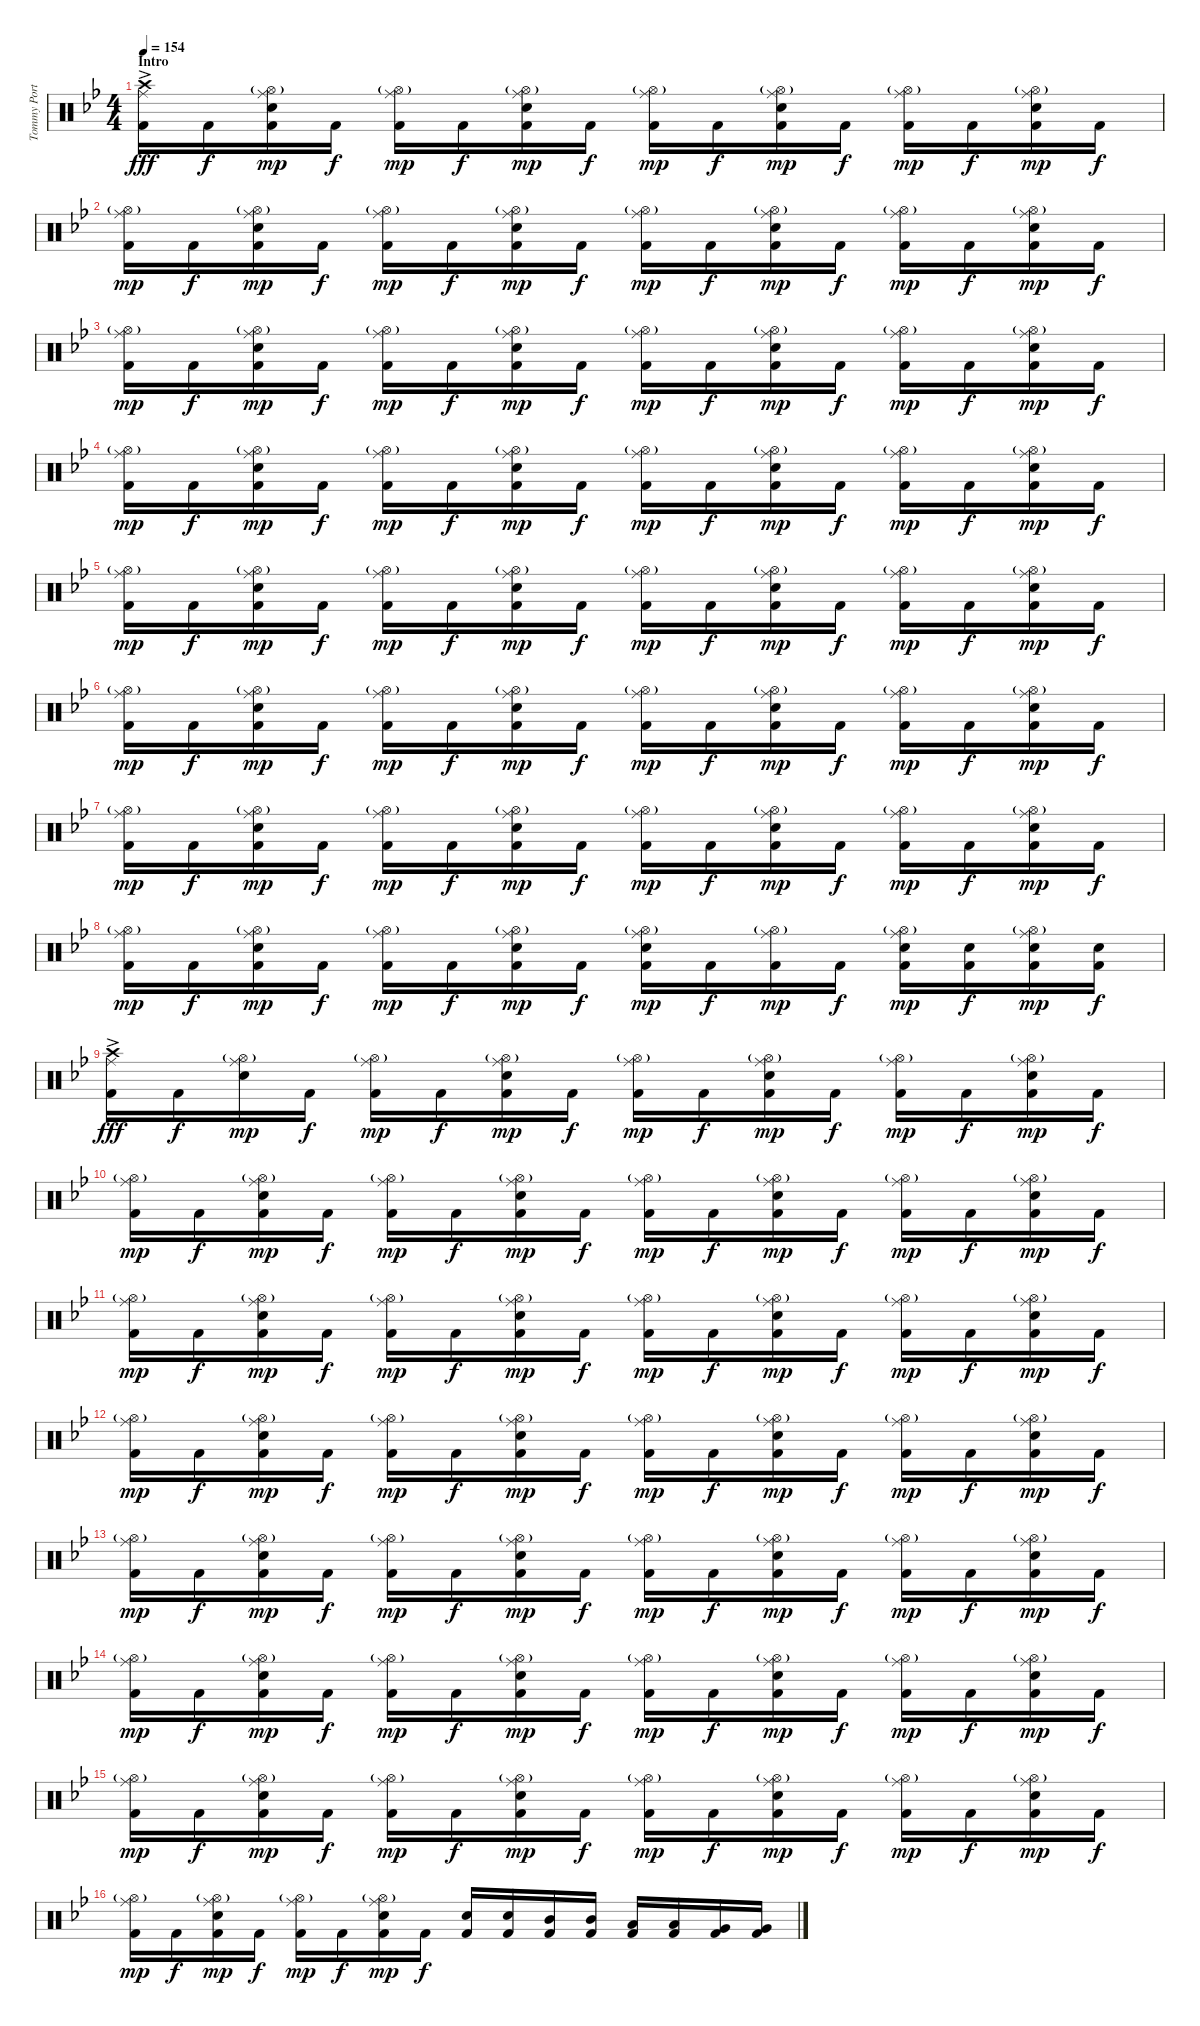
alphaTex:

\track ("Tommy Portimo" "Tommy Port") {instrument percussion}
\staff {score}
\articulation defaults
\ts (4 4)
\section ("" "Intro")
\tempo 154
\clef neutral
\ks gminor
("Crash high (hit)"{ac} "Ride (middle)" "Kick (hit) 2").16{dy fff} "Kick (hit) 2".16{dy f} ("Hi-Hat (open)"{g} "Ride (middle)" "Electric Snare (hit)" "Kick (hit) 2").16{dy mp} "Kick (hit) 2".16{dy f} ("Hi-Hat (open)"{g} "Ride (middle)" "Kick (hit) 2").16{dy mp} "Kick (hit) 2".16{dy f} ("Hi-Hat (open)"{g} "Ride (middle)" "Electric Snare (hit)" "Kick (hit) 2").16{dy mp} "Kick (hit) 2".16{dy f} ("Hi-Hat (open)"{g} "Ride (middle)" "Kick (hit) 2").16{dy mp} "Kick (hit) 2".16{dy f} ("Hi-Hat (open)"{g} "Ride (middle)" "Electric Snare (hit)" "Kick (hit) 2").16{dy mp} "Kick (hit) 2".16{dy f} ("Hi-Hat (open)"{g} "Ride (middle)" "Kick (hit) 2").16{dy mp} "Kick (hit) 2".16{dy f} ("Hi-Hat (open)"{g} "Ride (middle)" "Electric Snare (hit)" "Kick (hit) 2").16{dy mp} "Kick (hit) 2".16{dy f} |
("Hi-Hat (open)"{g} "Ride (middle)" "Kick (hit) 2").16{dy mp} "Kick (hit) 2".16{dy f} ("Hi-Hat (open)"{g} "Ride (middle)" "Electric Snare (hit)" "Kick (hit) 2").16{dy mp} "Kick (hit) 2".16{dy f} ("Hi-Hat (open)"{g} "Ride (middle)" "Kick (hit) 2").16{dy mp} "Kick (hit) 2".16{dy f} ("Hi-Hat (open)"{g} "Ride (middle)" "Electric Snare (hit)" "Kick (hit) 2").16{dy mp} "Kick (hit) 2".16{dy f} ("Hi-Hat (open)"{g} "Ride (middle)" "Kick (hit) 2").16{dy mp} "Kick (hit) 2".16{dy f} ("Hi-Hat (open)"{g} "Ride (middle)" "Electric Snare (hit)" "Kick (hit) 2").16{dy mp} "Kick (hit) 2".16{dy f} ("Hi-Hat (open)"{g} "Ride (middle)" "Kick (hit) 2").16{dy mp} "Kick (hit) 2".16{dy f} ("Hi-Hat (open)"{g} "Ride (middle)" "Electric Snare (hit)" "Kick (hit) 2").16{dy mp} "Kick (hit) 2".16{dy f} |
("Hi-Hat (open)"{g} "Ride (middle)" "Kick (hit) 2").16{dy mp} "Kick (hit) 2".16{dy f} ("Hi-Hat (open)"{g} "Ride (middle)" "Electric Snare (hit)" "Kick (hit) 2").16{dy mp} "Kick (hit) 2".16{dy f} ("Hi-Hat (open)"{g} "Ride (middle)" "Kick (hit) 2").16{dy mp} "Kick (hit) 2".16{dy f} ("Hi-Hat (open)"{g} "Ride (middle)" "Electric Snare (hit)" "Kick (hit) 2").16{dy mp} "Kick (hit) 2".16{dy f} ("Hi-Hat (open)"{g} "Ride (middle)" "Kick (hit) 2").16{dy mp} "Kick (hit) 2".16{dy f} ("Hi-Hat (open)"{g} "Ride (middle)" "Electric Snare (hit)" "Kick (hit) 2").16{dy mp} "Kick (hit) 2".16{dy f} ("Hi-Hat (open)"{g} "Ride (middle)" "Kick (hit) 2").16{dy mp} "Kick (hit) 2".16{dy f} ("Hi-Hat (open)"{g} "Ride (middle)" "Electric Snare (hit)" "Kick (hit) 2").16{dy mp} "Kick (hit) 2".16{dy f} |
("Hi-Hat (open)"{g} "Ride (middle)" "Kick (hit) 2").16{dy mp} "Kick (hit) 2".16{dy f} ("Hi-Hat (open)"{g} "Ride (middle)" "Electric Snare (hit)" "Kick (hit) 2").16{dy mp} "Kick (hit) 2".16{dy f} ("Hi-Hat (open)"{g} "Ride (middle)" "Kick (hit) 2").16{dy mp} "Kick (hit) 2".16{dy f} ("Hi-Hat (open)"{g} "Ride (middle)" "Electric Snare (hit)" "Kick (hit) 2").16{dy mp} "Kick (hit) 2".16{dy f} ("Hi-Hat (open)"{g} "Ride (middle)" "Kick (hit) 2").16{dy mp} "Kick (hit) 2".16{dy f} ("Hi-Hat (open)"{g} "Ride (middle)" "Electric Snare (hit)" "Kick (hit) 2").16{dy mp} "Kick (hit) 2".16{dy f} ("Hi-Hat (open)"{g} "Ride (middle)" "Kick (hit) 2").16{dy mp} "Kick (hit) 2".16{dy f} ("Hi-Hat (open)"{g} "Ride (middle)" "Electric Snare (hit)" "Kick (hit) 2").16{dy mp} "Kick (hit) 2".16{dy f} |
("Hi-Hat (open)"{g} "Ride (middle)" "Kick (hit) 2").16{dy mp} "Kick (hit) 2".16{dy f} ("Hi-Hat (open)"{g} "Ride (middle)" "Electric Snare (hit)" "Kick (hit) 2").16{dy mp} "Kick (hit) 2".16{dy f} ("Hi-Hat (open)"{g} "Ride (middle)" "Kick (hit) 2").16{dy mp} "Kick (hit) 2".16{dy f} ("Hi-Hat (open)"{g} "Ride (middle)" "Electric Snare (hit)" "Kick (hit) 2").16{dy mp} "Kick (hit) 2".16{dy f} ("Hi-Hat (open)"{g} "Ride (middle)" "Kick (hit) 2").16{dy mp} "Kick (hit) 2".16{dy f} ("Hi-Hat (open)"{g} "Ride (middle)" "Electric Snare (hit)" "Kick (hit) 2").16{dy mp} "Kick (hit) 2".16{dy f} ("Hi-Hat (open)"{g} "Ride (middle)" "Kick (hit) 2").16{dy mp} "Kick (hit) 2".16{dy f} ("Hi-Hat (open)"{g} "Ride (middle)" "Electric Snare (hit)" "Kick (hit) 2").16{dy mp} "Kick (hit) 2".16{dy f} |
("Hi-Hat (open)"{g} "Ride (middle)" "Kick (hit) 2").16{dy mp} "Kick (hit) 2".16{dy f} ("Hi-Hat (open)"{g} "Ride (middle)" "Electric Snare (hit)" "Kick (hit) 2").16{dy mp} "Kick (hit) 2".16{dy f} ("Hi-Hat (open)"{g} "Ride (middle)" "Kick (hit) 2").16{dy mp} "Kick (hit) 2".16{dy f} ("Hi-Hat (open)"{g} "Ride (middle)" "Electric Snare (hit)" "Kick (hit) 2").16{dy mp} "Kick (hit) 2".16{dy f} ("Hi-Hat (open)"{g} "Ride (middle)" "Kick (hit) 2").16{dy mp} "Kick (hit) 2".16{dy f} ("Hi-Hat (open)"{g} "Ride (middle)" "Electric Snare (hit)" "Kick (hit) 2").16{dy mp} "Kick (hit) 2".16{dy f} ("Hi-Hat (open)"{g} "Ride (middle)" "Kick (hit) 2").16{dy mp} "Kick (hit) 2".16{dy f} ("Hi-Hat (open)"{g} "Ride (middle)" "Electric Snare (hit)" "Kick (hit) 2").16{dy mp} "Kick (hit) 2".16{dy f} |
("Hi-Hat (open)"{g} "Ride (middle)" "Kick (hit) 2").16{dy mp} "Kick (hit) 2".16{dy f} ("Hi-Hat (open)"{g} "Ride (middle)" "Electric Snare (hit)" "Kick (hit) 2").16{dy mp} "Kick (hit) 2".16{dy f} ("Hi-Hat (open)"{g} "Ride (middle)" "Kick (hit) 2").16{dy mp} "Kick (hit) 2".16{dy f} ("Hi-Hat (open)"{g} "Ride (middle)" "Electric Snare (hit)" "Kick (hit) 2").16{dy mp} "Kick (hit) 2".16{dy f} ("Hi-Hat (open)"{g} "Ride (middle)" "Kick (hit) 2").16{dy mp} "Kick (hit) 2".16{dy f} ("Hi-Hat (open)"{g} "Ride (middle)" "Electric Snare (hit)" "Kick (hit) 2").16{dy mp} "Kick (hit) 2".16{dy f} ("Hi-Hat (open)"{g} "Ride (middle)" "Kick (hit) 2").16{dy mp} "Kick (hit) 2".16{dy f} ("Hi-Hat (open)"{g} "Ride (middle)" "Electric Snare (hit)" "Kick (hit) 2").16{dy mp} "Kick (hit) 2".16{dy f} |
("Hi-Hat (open)"{g} "Ride (middle)" "Kick (hit) 2").16{dy mp} "Kick (hit) 2".16{dy f} ("Hi-Hat (open)"{g} "Ride (middle)" "Electric Snare (hit)" "Kick (hit) 2").16{dy mp} "Kick (hit) 2".16{dy f} ("Hi-Hat (open)"{g} "Ride (middle)" "Kick (hit) 2").16{dy mp} "Kick (hit) 2".16{dy f} ("Hi-Hat (open)"{g} "Ride (middle)" "Electric Snare (hit)" "Kick (hit) 2").16{dy mp} "Kick (hit) 2".16{dy f} ("Hi-Hat (open)"{g} "Ride (middle)" "Electric Snare (hit)" "Kick (hit) 2").16{dy mp} "Kick (hit) 2".16{dy f} ("Hi-Hat (open)"{g} "Ride (middle)" "Kick (hit) 2").16{dy mp} "Kick (hit) 2".16{dy f} ("Hi-Hat (open)"{g} "Ride (middle)" "Electric Snare (hit)" "Kick (hit) 2").16{dy mp} ("Electric Snare (hit)" "Kick (hit) 2").16{dy f} ("Hi-Hat (open)"{g} "Ride (middle)" "Electric Snare (hit)" "Kick (hit) 2").16{dy mp} ("Electric Snare (hit)" "Kick (hit) 2").16{dy f} |
("Crash high (hit)"{ac} "Ride (middle)" "Kick (hit) 2").16{dy fff} "Kick (hit) 2".16{dy f} ("Hi-Hat (open)"{g} "Ride (middle)" "Electric Snare (hit)").16{dy mp} "Kick (hit) 2".16{dy f} ("Hi-Hat (open)"{g} "Ride (middle)" "Kick (hit) 2").16{dy mp} "Kick (hit) 2".16{dy f} ("Hi-Hat (open)"{g} "Ride (middle)" "Electric Snare (hit)" "Kick (hit) 2").16{dy mp} "Kick (hit) 2".16{dy f} ("Hi-Hat (open)"{g} "Ride (middle)" "Kick (hit) 2").16{dy mp} "Kick (hit) 2".16{dy f} ("Hi-Hat (open)"{g} "Ride (middle)" "Electric Snare (hit)" "Kick (hit) 2").16{dy mp} "Kick (hit) 2".16{dy f} ("Hi-Hat (open)"{g} "Ride (middle)" "Kick (hit) 2").16{dy mp} "Kick (hit) 2".16{dy f} ("Hi-Hat (open)"{g} "Ride (middle)" "Electric Snare (hit)" "Kick (hit) 2").16{dy mp} "Kick (hit) 2".16{dy f} |
("Hi-Hat (open)"{g} "Ride (middle)" "Kick (hit) 2").16{dy mp} "Kick (hit) 2".16{dy f} ("Hi-Hat (open)"{g} "Ride (middle)" "Electric Snare (hit)" "Kick (hit) 2").16{dy mp} "Kick (hit) 2".16{dy f} ("Hi-Hat (open)"{g} "Ride (middle)" "Kick (hit) 2").16{dy mp} "Kick (hit) 2".16{dy f} ("Hi-Hat (open)"{g} "Ride (middle)" "Electric Snare (hit)" "Kick (hit) 2").16{dy mp} "Kick (hit) 2".16{dy f} ("Hi-Hat (open)"{g} "Ride (middle)" "Kick (hit) 2").16{dy mp} "Kick (hit) 2".16{dy f} ("Hi-Hat (open)"{g} "Ride (middle)" "Electric Snare (hit)" "Kick (hit) 2").16{dy mp} "Kick (hit) 2".16{dy f} ("Hi-Hat (open)"{g} "Ride (middle)" "Kick (hit) 2").16{dy mp} "Kick (hit) 2".16{dy f} ("Hi-Hat (open)"{g} "Ride (middle)" "Electric Snare (hit)" "Kick (hit) 2").16{dy mp} "Kick (hit) 2".16{dy f} |
("Hi-Hat (open)"{g} "Ride (middle)" "Kick (hit) 2").16{dy mp} "Kick (hit) 2".16{dy f} ("Hi-Hat (open)"{g} "Ride (middle)" "Electric Snare (hit)" "Kick (hit) 2").16{dy mp} "Kick (hit) 2".16{dy f} ("Hi-Hat (open)"{g} "Ride (middle)" "Kick (hit) 2").16{dy mp} "Kick (hit) 2".16{dy f} ("Hi-Hat (open)"{g} "Ride (middle)" "Electric Snare (hit)" "Kick (hit) 2").16{dy mp} "Kick (hit) 2".16{dy f} ("Hi-Hat (open)"{g} "Ride (middle)" "Kick (hit) 2").16{dy mp} "Kick (hit) 2".16{dy f} ("Hi-Hat (open)"{g} "Ride (middle)" "Electric Snare (hit)" "Kick (hit) 2").16{dy mp} "Kick (hit) 2".16{dy f} ("Hi-Hat (open)"{g} "Ride (middle)" "Kick (hit) 2").16{dy mp} "Kick (hit) 2".16{dy f} ("Hi-Hat (open)"{g} "Ride (middle)" "Electric Snare (hit)" "Kick (hit) 2").16{dy mp} "Kick (hit) 2".16{dy f} |
("Hi-Hat (open)"{g} "Ride (middle)" "Kick (hit) 2").16{dy mp} "Kick (hit) 2".16{dy f} ("Hi-Hat (open)"{g} "Ride (middle)" "Electric Snare (hit)" "Kick (hit) 2").16{dy mp} "Kick (hit) 2".16{dy f} ("Hi-Hat (open)"{g} "Ride (middle)" "Kick (hit) 2").16{dy mp} "Kick (hit) 2".16{dy f} ("Hi-Hat (open)"{g} "Ride (middle)" "Electric Snare (hit)" "Kick (hit) 2").16{dy mp} "Kick (hit) 2".16{dy f} ("Hi-Hat (open)"{g} "Ride (middle)" "Kick (hit) 2").16{dy mp} "Kick (hit) 2".16{dy f} ("Hi-Hat (open)"{g} "Ride (middle)" "Electric Snare (hit)" "Kick (hit) 2").16{dy mp} "Kick (hit) 2".16{dy f} ("Hi-Hat (open)"{g} "Ride (middle)" "Kick (hit) 2").16{dy mp} "Kick (hit) 2".16{dy f} ("Hi-Hat (open)"{g} "Ride (middle)" "Electric Snare (hit)" "Kick (hit) 2").16{dy mp} "Kick (hit) 2".16{dy f} |
("Hi-Hat (open)"{g} "Ride (middle)" "Kick (hit) 2").16{dy mp} "Kick (hit) 2".16{dy f} ("Hi-Hat (open)"{g} "Ride (middle)" "Electric Snare (hit)" "Kick (hit) 2").16{dy mp} "Kick (hit) 2".16{dy f} ("Hi-Hat (open)"{g} "Ride (middle)" "Kick (hit) 2").16{dy mp} "Kick (hit) 2".16{dy f} ("Hi-Hat (open)"{g} "Ride (middle)" "Electric Snare (hit)" "Kick (hit) 2").16{dy mp} "Kick (hit) 2".16{dy f} ("Hi-Hat (open)"{g} "Ride (middle)" "Kick (hit) 2").16{dy mp} "Kick (hit) 2".16{dy f} ("Hi-Hat (open)"{g} "Ride (middle)" "Electric Snare (hit)" "Kick (hit) 2").16{dy mp} "Kick (hit) 2".16{dy f} ("Hi-Hat (open)"{g} "Ride (middle)" "Kick (hit) 2").16{dy mp} "Kick (hit) 2".16{dy f} ("Hi-Hat (open)"{g} "Ride (middle)" "Electric Snare (hit)" "Kick (hit) 2").16{dy mp} "Kick (hit) 2".16{dy f} |
("Hi-Hat (open)"{g} "Ride (middle)" "Kick (hit) 2").16{dy mp} "Kick (hit) 2".16{dy f} ("Hi-Hat (open)"{g} "Ride (middle)" "Electric Snare (hit)" "Kick (hit) 2").16{dy mp} "Kick (hit) 2".16{dy f} ("Hi-Hat (open)"{g} "Ride (middle)" "Kick (hit) 2").16{dy mp} "Kick (hit) 2".16{dy f} ("Hi-Hat (open)"{g} "Ride (middle)" "Electric Snare (hit)" "Kick (hit) 2").16{dy mp} "Kick (hit) 2".16{dy f} ("Hi-Hat (open)"{g} "Ride (middle)" "Kick (hit) 2").16{dy mp} "Kick (hit) 2".16{dy f} ("Hi-Hat (open)"{g} "Ride (middle)" "Electric Snare (hit)" "Kick (hit) 2").16{dy mp} "Kick (hit) 2".16{dy f} ("Hi-Hat (open)"{g} "Ride (middle)" "Kick (hit) 2").16{dy mp} "Kick (hit) 2".16{dy f} ("Hi-Hat (open)"{g} "Ride (middle)" "Electric Snare (hit)" "Kick (hit) 2").16{dy mp} "Kick (hit) 2".16{dy f} |
("Hi-Hat (open)"{g} "Ride (middle)" "Kick (hit) 2").16{dy mp} "Kick (hit) 2".16{dy f} ("Hi-Hat (open)"{g} "Ride (middle)" "Electric Snare (hit)" "Kick (hit) 2").16{dy mp} "Kick (hit) 2".16{dy f} ("Hi-Hat (open)"{g} "Ride (middle)" "Kick (hit) 2").16{dy mp} "Kick (hit) 2".16{dy f} ("Hi-Hat (open)"{g} "Ride (middle)" "Electric Snare (hit)" "Kick (hit) 2").16{dy mp} "Kick (hit) 2".16{dy f} ("Hi-Hat (open)"{g} "Ride (middle)" "Kick (hit) 2").16{dy mp} "Kick (hit) 2".16{dy f} ("Hi-Hat (open)"{g} "Ride (middle)" "Electric Snare (hit)" "Kick (hit) 2").16{dy mp} "Kick (hit) 2".16{dy f} ("Hi-Hat (open)"{g} "Ride (middle)" "Kick (hit) 2").16{dy mp} "Kick (hit) 2".16{dy f} ("Hi-Hat (open)"{g} "Ride (middle)" "Electric Snare (hit)" "Kick (hit) 2").16{dy mp} "Kick (hit) 2".16{dy f} |
("Hi-Hat (open)"{g} "Ride (middle)" "Kick (hit) 2").16{dy mp} "Kick (hit) 2".16{dy f} ("Hi-Hat (open)"{g} "Ride (middle)" "Electric Snare (hit)" "Kick (hit) 2").16{dy mp} "Kick (hit) 2".16{dy f} ("Hi-Hat (open)"{g} "Ride (middle)" "Kick (hit) 2").16{dy mp} "Kick (hit) 2".16{dy f} ("Hi-Hat (open)"{g} "Ride (middle)" "Electric Snare (hit)" "Kick (hit) 2").16{dy mp} "Kick (hit) 2".16{dy f} ("Electric Snare (hit)" "Kick (hit) 2").16 ("Electric Snare (hit)" "Kick (hit) 2").16 ("Mid Tom (hit)" "Kick (hit) 2").16 ("Mid Tom (hit)" "Kick (hit) 2").16 ("Low Tom (hit)" "Kick (hit) 2").16 ("Low Tom (hit)" "Kick (hit) 2").16 ("Very Low Tom (hit)" "Kick (hit) 2").16 ("Very Low Tom (hit)" "Kick (hit) 2").16
